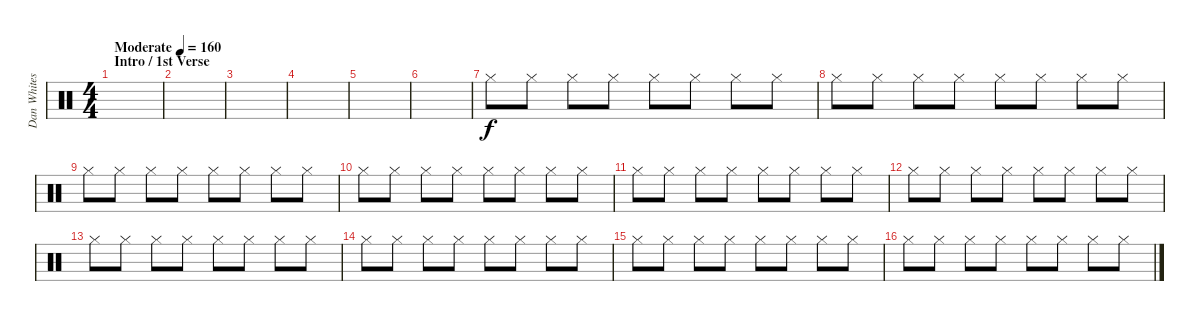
\track ("Dan Whitesides" "Dan Whites") {instrument percussion}
\staff {score}
\articulation defaults
\ts (4 4)
\section ("" "Intro / 1st Verse")
\tempo (160 "Moderate")
\clef neutral
\ks c
|
|
|
|
|
|
"Hi-Hat (closed)".8 "Hi-Hat (closed)".8 "Hi-Hat (closed)".8 "Hi-Hat (closed)".8 "Hi-Hat (closed)".8 "Hi-Hat (closed)".8 "Hi-Hat (closed)".8 "Hi-Hat (closed)".8 |
"Hi-Hat (closed)".8 "Hi-Hat (closed)".8 "Hi-Hat (closed)".8 "Hi-Hat (closed)".8 "Hi-Hat (closed)".8 "Hi-Hat (closed)".8 "Hi-Hat (closed)".8 "Hi-Hat (closed)".8 |
"Hi-Hat (closed)".8 "Hi-Hat (closed)".8 "Hi-Hat (closed)".8 "Hi-Hat (closed)".8 "Hi-Hat (closed)".8 "Hi-Hat (closed)".8 "Hi-Hat (closed)".8 "Hi-Hat (closed)".8 |
"Hi-Hat (closed)".8 "Hi-Hat (closed)".8 "Hi-Hat (closed)".8 "Hi-Hat (closed)".8 "Hi-Hat (closed)".8 "Hi-Hat (closed)".8 "Hi-Hat (closed)".8 "Hi-Hat (closed)".8 |
"Hi-Hat (closed)".8 "Hi-Hat (closed)".8 "Hi-Hat (closed)".8 "Hi-Hat (closed)".8 "Hi-Hat (closed)".8 "Hi-Hat (closed)".8 "Hi-Hat (closed)".8 "Hi-Hat (closed)".8 |
"Hi-Hat (closed)".8 "Hi-Hat (closed)".8 "Hi-Hat (closed)".8 "Hi-Hat (closed)".8 "Hi-Hat (closed)".8 "Hi-Hat (closed)".8 "Hi-Hat (closed)".8 "Hi-Hat (closed)".8 |
"Hi-Hat (closed)".8 "Hi-Hat (closed)".8 "Hi-Hat (closed)".8 "Hi-Hat (closed)".8 "Hi-Hat (closed)".8 "Hi-Hat (closed)".8 "Hi-Hat (closed)".8 "Hi-Hat (closed)".8 |
"Hi-Hat (closed)".8 "Hi-Hat (closed)".8 "Hi-Hat (closed)".8 "Hi-Hat (closed)".8 "Hi-Hat (closed)".8 "Hi-Hat (closed)".8 "Hi-Hat (closed)".8 "Hi-Hat (closed)".8 |
"Hi-Hat (closed)".8 "Hi-Hat (closed)".8 "Hi-Hat (closed)".8 "Hi-Hat (closed)".8 "Hi-Hat (closed)".8 "Hi-Hat (closed)".8 "Hi-Hat (closed)".8 "Hi-Hat (closed)".8 |
"Hi-Hat (closed)".8 "Hi-Hat (closed)".8 "Hi-Hat (closed)".8 "Hi-Hat (closed)".8 "Hi-Hat (closed)".8 "Hi-Hat (closed)".8 "Hi-Hat (closed)".8 "Hi-Hat (closed)".8
